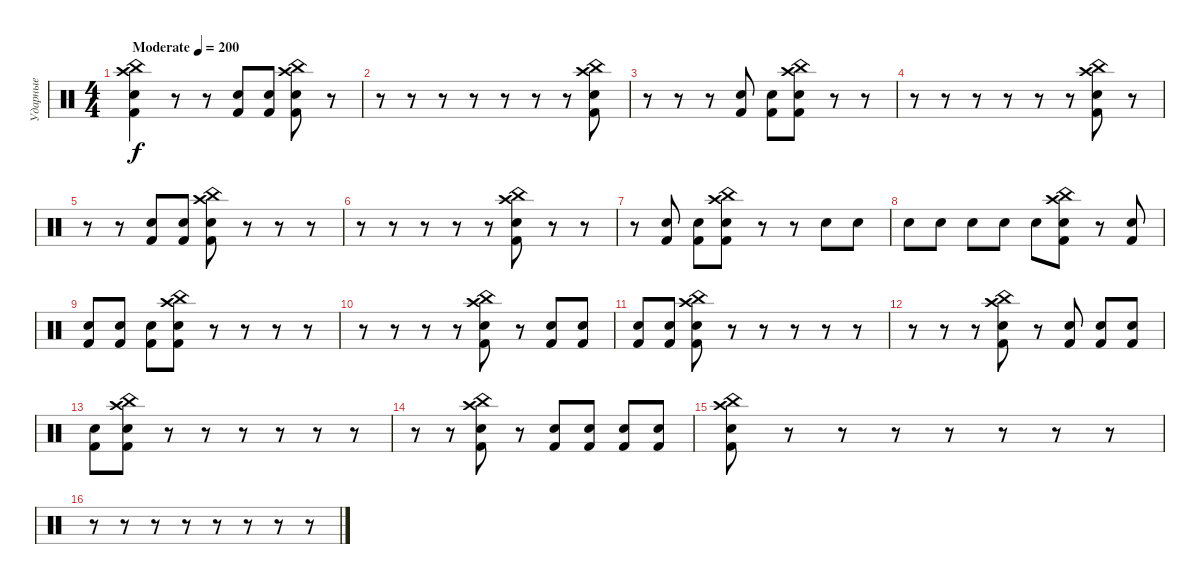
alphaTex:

\track ("Ударные" "Ударные") {instrument percussion}
\staff {score}
\articulation defaults
\ts (4 4)
\tempo (200 "Moderate")
\tempo 160
\tempo (200 "Moderate")
\clef neutral
\ks c
("China (hit)" "Crash high (hit)" "Kick (hit) 2" "Electric Snare (hit)").4{dy f} r.8 r.8 ("Kick (hit) 2" "Electric Snare (hit)").8 ("Electric Snare (hit)" "Kick (hit) 2").8 ("Kick (hit) 2" "Electric Snare (hit)" "Crash high (hit)" "China (hit)").8 r.8 |
r.8 r.8 r.8 r.8 r.8 r.8 r.8 ("Kick (hit) 2" "Electric Snare (hit)" "Crash high (hit)" "China (hit)").8 |
r.8 r.8 r.8 ("Electric Snare (hit)" "Kick (hit) 2").8 ("Kick (hit) 2" "Electric Snare (hit)").8 ("Electric Snare (hit)" "Kick (hit) 2" "Crash high (hit)" "China (hit)").8 r.8 r.8 |
r.8 r.8 r.8 r.8 r.8 r.8 ("Kick (hit) 2" "Electric Snare (hit)" "Crash high (hit)" "China (hit)").8 r.8 |
r.8 r.8 ("Electric Snare (hit)" "Kick (hit) 2").8 ("Kick (hit) 2" "Electric Snare (hit)").8 ("Kick (hit) 2" "Electric Snare (hit)" "Crash high (hit)" "China (hit)").8 r.8 r.8 r.8 |
r.8 r.8 r.8 r.8 r.8 ("Electric Snare (hit)" "Kick (hit) 2" "Crash high (hit)" "China (hit)").8 r.8 r.8 |
r.8 ("Kick (hit) 2" "Electric Snare (hit)").8 ("Electric Snare (hit)" "Kick (hit) 2").8 ("China (hit)" "Crash high (hit)" "Kick (hit) 2" "Electric Snare (hit)").8 r.8 r.8 "Electric Snare (hit)".8 "Electric Snare (hit)".8 |
"Electric Snare (hit)".8 "Electric Snare (hit)".8 "Electric Snare (hit)".8 "Electric Snare (hit)".8 "Electric Snare (hit)".8 ("Kick (hit) 2" "Electric Snare (hit)" "Crash high (hit)" "China (hit)").8 r.8 ("Kick (hit) 2" "Electric Snare (hit)").8 |
("Electric Snare (hit)" "Kick (hit) 2").8 ("Kick (hit) 2" "Electric Snare (hit)").8 ("Electric Snare (hit)" "Kick (hit) 2").8 ("Kick (hit) 2" "Electric Snare (hit)" "Crash high (hit)" "China (hit)").8 r.8 r.8 r.8 r.8 |
r.8 r.8 r.8 r.8 ("Kick (hit) 2" "Electric Snare (hit)" "Crash high (hit)" "China (hit)").8 r.8 ("Kick (hit) 2" "Electric Snare (hit)").8 ("Electric Snare (hit)" "Kick (hit) 2").8 |
("Kick (hit) 2" "Electric Snare (hit)").8 ("Electric Snare (hit)" "Kick (hit) 2").8 ("Kick (hit) 2" "Electric Snare (hit)" "Crash high (hit)" "China (hit)").8 r.8 r.8 r.8 r.8 r.8 |
r.8 r.8 r.8 ("Kick (hit) 2" "Electric Snare (hit)" "Crash high (hit)" "China (hit)").8 r.8 ("Kick (hit) 2" "Electric Snare (hit)").8 ("Kick (hit) 2" "Electric Snare (hit)").8 ("Electric Snare (hit)" "Kick (hit) 2").8 |
("Kick (hit) 2" "Electric Snare (hit)").8 ("Crash high (hit)" "China (hit)" "Kick (hit) 2" "Electric Snare (hit)").8 r.8 r.8 r.8 r.8 r.8 r.8 |
r.8 r.8 ("Kick (hit) 2" "Electric Snare (hit)" "Crash high (hit)" "China (hit)").8 r.8 ("Kick (hit) 2" "Electric Snare (hit)").8 ("Electric Snare (hit)" "Kick (hit) 2").8 ("Kick (hit) 2" "Electric Snare (hit)").8 ("Kick (hit) 2" "Electric Snare (hit)").8 |
("Crash high (hit)" "China (hit)" "Kick (hit) 2" "Electric Snare (hit)").8 r.8 r.8 r.8 r.8 r.8 r.8 r.8 |
r.8 r.8 r.8 r.8 r.8 r.8 r.8 r.8
